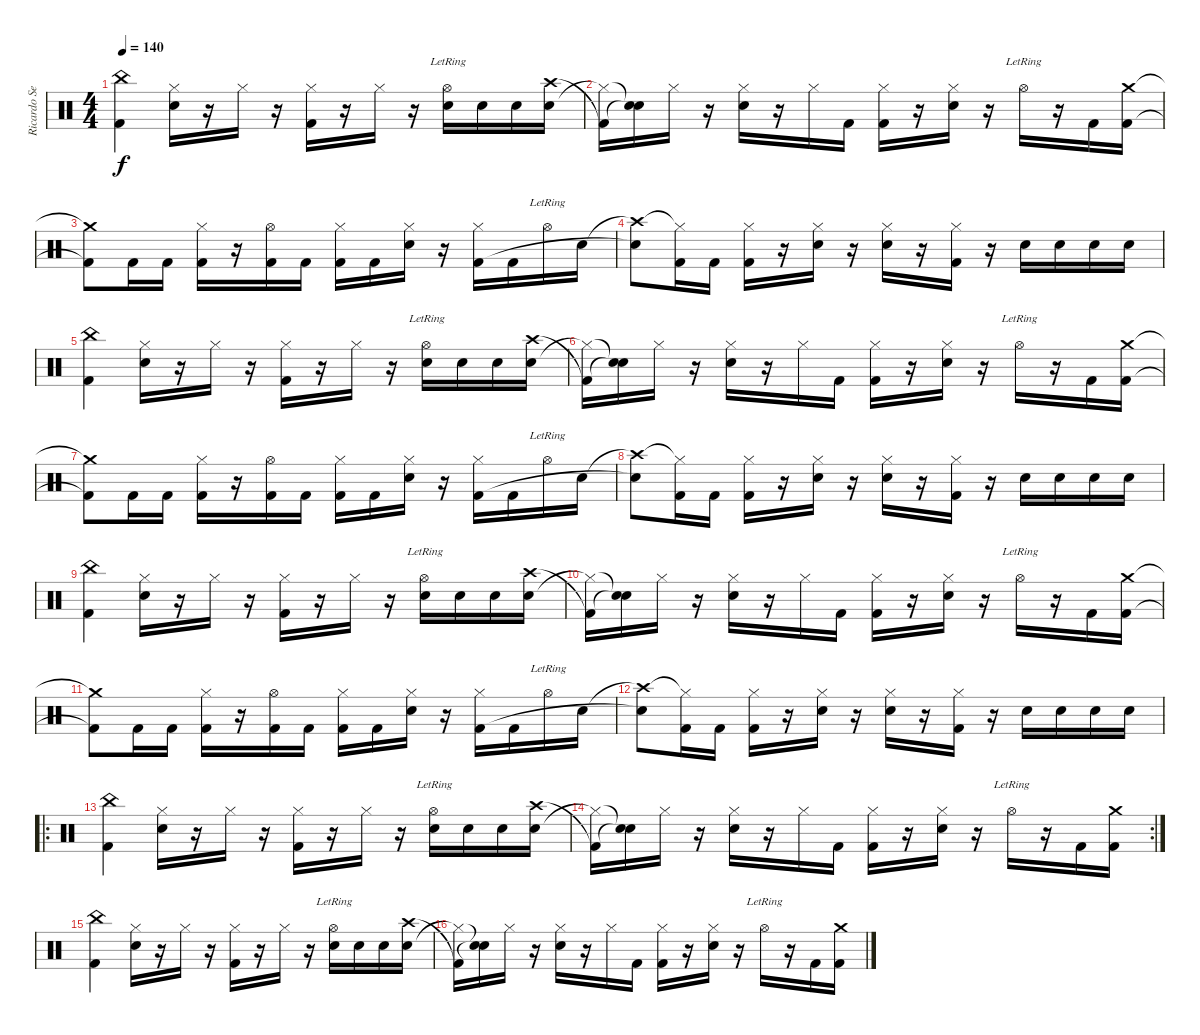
\track ("Ricardo Severino" "Ricardo Se") {instrument percussion}
\staff {score}
\articulation defaults
\ts (4 4)
\tempo 140
\clef neutral
\ks c
("China (hit)" "Kick (hit) 2").4{dy f} ("Hi-Hat (closed)" "Snare (hit) 2").16 r.16 "Hi-Hat (closed)".16 r.16 ("Hi-Hat (closed)" "Kick (hit) 2").16 r.16 "Hi-Hat (closed)".16 r.16 ("Hi-Hat (open)"{lr} "Snare (hit) 2").16 "Snare (hit) 2".16 "Snare (hit) 2".16 ("Snare (hit) 2" "Crash high (hit)").16 |
("Hi-Hat (closed)"{t} "Kick (hit) 2"{t}).16 ("Snare (hit)"{t} "Snare (hit)"{t}).16 "Hi-Hat (closed)".16 r.16 ("Hi-Hat (closed)" "Snare (hit) 2").16 r.16 "Hi-Hat (closed)".16 "Kick (hit) 2".16 ("Hi-Hat (closed)" "Kick (hit) 2").16 r.16 ("Hi-Hat (closed)" "Snare (hit) 2").16 r.16 "Hi-Hat (open)"{lr}.16 r.16 "Kick (hit) 2".16 ("Crash medium (hit)" "Kick (hit) 2").16 |
("Crash medium (hit)"{t} "Kick (hit) 2"{t}).8 "Kick (hit) 2".16 "Kick (hit) 2".16 ("Hi-Hat (closed)" "Kick (hit) 2").16 r.16 ("Hi-Hat (open)" "Kick (hit) 2").16 "Kick (hit) 2".16 ("Hi-Hat (closed)" "Kick (hit) 2").16 "Kick (hit) 2".16 ("Hi-Hat (closed)" "Snare (hit) 2").16 r.16 ("Hi-Hat (closed)" "Kick (hit) 2").16 "Kick (hit) 2".16 "Hi-Hat (open)"{lr}.16 "Snare (hit) 2".16 |
("Crash high (hit)"{t} "Snare (hit) 2"{t}).8 ("Hi-Hat (closed)"{t} "Kick (hit) 2").16 "Kick (hit) 2".16 ("Hi-Hat (closed)" "Kick (hit) 2").16 r.16 ("Hi-Hat (closed)" "Snare (hit) 2").16 r.16 ("Hi-Hat (closed)" "Snare (hit) 2").16 r.16 ("Hi-Hat (closed)" "Kick (hit) 2").16 r.16 "Snare (hit) 2".16 "Snare (hit) 2".16 "Snare (hit) 2".16 "Snare (hit) 2".16 |
("China (hit)" "Kick (hit) 2").4 ("Hi-Hat (closed)" "Snare (hit) 2").16 r.16 "Hi-Hat (closed)".16 r.16 ("Hi-Hat (closed)" "Kick (hit) 2").16 r.16 "Hi-Hat (closed)".16 r.16 ("Hi-Hat (open)"{lr} "Snare (hit) 2").16 "Snare (hit) 2".16 "Snare (hit) 2".16 ("Snare (hit) 2" "Crash high (hit)").16 |
("Hi-Hat (closed)"{t} "Kick (hit) 2"{t}).16 ("Snare (hit)"{t} "Snare (hit)"{t}).16 "Hi-Hat (closed)".16 r.16 ("Hi-Hat (closed)" "Snare (hit) 2").16 r.16 "Hi-Hat (closed)".16 "Kick (hit) 2".16 ("Hi-Hat (closed)" "Kick (hit) 2").16 r.16 ("Hi-Hat (closed)" "Snare (hit) 2").16 r.16 "Hi-Hat (open)"{lr}.16 r.16 "Kick (hit) 2".16 ("Crash medium (hit)" "Kick (hit) 2").16 |
("Crash medium (hit)"{t} "Kick (hit) 2"{t}).8 "Kick (hit) 2".16 "Kick (hit) 2".16 ("Hi-Hat (closed)" "Kick (hit) 2").16 r.16 ("Hi-Hat (open)" "Kick (hit) 2").16 "Kick (hit) 2".16 ("Hi-Hat (closed)" "Kick (hit) 2").16 "Kick (hit) 2".16 ("Hi-Hat (closed)" "Snare (hit) 2").16 r.16 ("Hi-Hat (closed)" "Kick (hit) 2").16 "Kick (hit) 2".16 "Hi-Hat (open)"{lr}.16 "Snare (hit) 2".16 |
("Crash high (hit)"{t} "Snare (hit) 2"{t}).8 ("Hi-Hat (closed)"{t} "Kick (hit) 2").16 "Kick (hit) 2".16 ("Hi-Hat (closed)" "Kick (hit) 2").16 r.16 ("Hi-Hat (closed)" "Snare (hit) 2").16 r.16 ("Hi-Hat (closed)" "Snare (hit) 2").16 r.16 ("Hi-Hat (closed)" "Kick (hit) 2").16 r.16 "Snare (hit) 2".16 "Snare (hit) 2".16 "Snare (hit) 2".16 "Snare (hit) 2".16 |
("China (hit)" "Kick (hit) 2").4 ("Hi-Hat (closed)" "Snare (hit) 2").16 r.16 "Hi-Hat (closed)".16 r.16 ("Hi-Hat (closed)" "Kick (hit) 2").16 r.16 "Hi-Hat (closed)".16 r.16 ("Hi-Hat (open)"{lr} "Snare (hit) 2").16 "Snare (hit) 2".16 "Snare (hit) 2".16 ("Snare (hit) 2" "Crash high (hit)").16 |
("Hi-Hat (closed)"{t} "Kick (hit) 2"{t}).16 ("Snare (hit)"{t} "Snare (hit)"{t}).16 "Hi-Hat (closed)".16 r.16 ("Hi-Hat (closed)" "Snare (hit) 2").16 r.16 "Hi-Hat (closed)".16 "Kick (hit) 2".16 ("Hi-Hat (closed)" "Kick (hit) 2").16 r.16 ("Hi-Hat (closed)" "Snare (hit) 2").16 r.16 "Hi-Hat (open)"{lr}.16 r.16 "Kick (hit) 2".16 ("Crash medium (hit)" "Kick (hit) 2").16 |
("Crash medium (hit)"{t} "Kick (hit) 2"{t}).8 "Kick (hit) 2".16 "Kick (hit) 2".16 ("Hi-Hat (closed)" "Kick (hit) 2").16 r.16 ("Hi-Hat (open)" "Kick (hit) 2").16 "Kick (hit) 2".16 ("Hi-Hat (closed)" "Kick (hit) 2").16 "Kick (hit) 2".16 ("Hi-Hat (closed)" "Snare (hit) 2").16 r.16 ("Hi-Hat (closed)" "Kick (hit) 2").16 "Kick (hit) 2".16 "Hi-Hat (open)"{lr}.16 "Snare (hit) 2".16 |
("Crash high (hit)"{t} "Snare (hit) 2"{t}).8 ("Hi-Hat (closed)"{t} "Kick (hit) 2").16 "Kick (hit) 2".16 ("Hi-Hat (closed)" "Kick (hit) 2").16 r.16 ("Hi-Hat (closed)" "Snare (hit) 2").16 r.16 ("Hi-Hat (closed)" "Snare (hit) 2").16 r.16 ("Hi-Hat (closed)" "Kick (hit) 2").16 r.16 "Snare (hit) 2".16 "Snare (hit) 2".16 "Snare (hit) 2".16 "Snare (hit) 2".16 |
\ro
("China (hit)" "Kick (hit) 2").4 ("Hi-Hat (closed)" "Snare (hit) 2").16 r.16 "Hi-Hat (closed)".16 r.16 ("Hi-Hat (closed)" "Kick (hit) 2").16 r.16 "Hi-Hat (closed)".16 r.16 ("Hi-Hat (open)"{lr} "Snare (hit) 2").16 "Snare (hit) 2".16 "Snare (hit) 2".16 ("Snare (hit) 2" "Crash high (hit)").16 |
\rc 2
("Hi-Hat (closed)"{t} "Kick (hit) 2"{t}).16 ("Snare (hit)"{t} "Snare (hit)"{t}).16 "Hi-Hat (closed)".16 r.16 ("Hi-Hat (closed)" "Snare (hit) 2").16 r.16 "Hi-Hat (closed)".16 "Kick (hit) 2".16 ("Hi-Hat (closed)" "Kick (hit) 2").16 r.16 ("Hi-Hat (closed)" "Snare (hit) 2").16 r.16 "Hi-Hat (open)"{lr}.16 r.16 "Kick (hit) 2".16 ("Crash medium (hit)" "Kick (hit) 2").16 |
("China (hit)" "Kick (hit) 2").4 ("Hi-Hat (closed)" "Snare (hit) 2").16 r.16 "Hi-Hat (closed)".16 r.16 ("Hi-Hat (closed)" "Kick (hit) 2").16 r.16 "Hi-Hat (closed)".16 r.16 ("Hi-Hat (open)"{lr} "Snare (hit) 2").16 "Snare (hit) 2".16 "Snare (hit) 2".16 ("Snare (hit) 2" "Crash high (hit)").16 |
("Hi-Hat (closed)"{t} "Kick (hit) 2"{t}).16 ("Snare (hit)"{t} "Snare (hit)"{t}).16 "Hi-Hat (closed)".16 r.16 ("Hi-Hat (closed)" "Snare (hit) 2").16 r.16 "Hi-Hat (closed)".16 "Kick (hit) 2".16 ("Hi-Hat (closed)" "Kick (hit) 2").16 r.16 ("Hi-Hat (closed)" "Snare (hit) 2").16 r.16 "Hi-Hat (open)"{lr}.16 r.16 "Kick (hit) 2".16 ("Crash medium (hit)" "Kick (hit) 2").16
